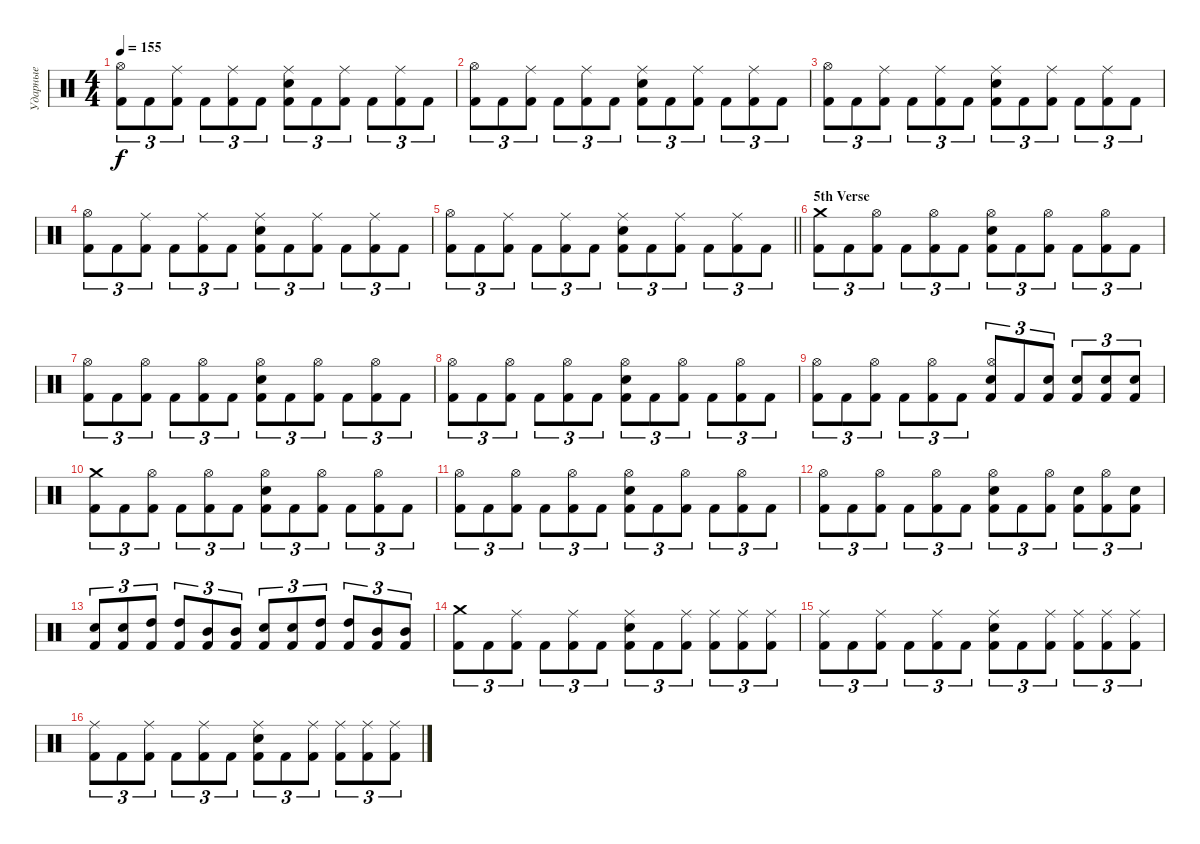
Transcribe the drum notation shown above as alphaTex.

\track ("Ударные" "Ударные") {instrument percussion}
\staff {score}
\articulation defaults
\ts (4 4)
\tempo 155
\clef neutral
\ks c
("Kick (hit) 2" "Hi-Hat (open)").8{tu (3 2) dy f} "Kick (hit) 2".8{tu (3 2)} ("Kick (hit) 2" "Ride (middle)").8{tu (3 2)} "Kick (hit) 2".8{tu (3 2)} ("Kick (hit) 2" "Ride (middle)").8{tu (3 2)} "Kick (hit) 2".8{tu (3 2)} ("Kick (hit) 2" "Electric Snare (hit)" "Ride (middle)").8{tu (3 2)} "Kick (hit) 2".8{tu (3 2)} ("Kick (hit) 2" "Ride (middle)").8{tu (3 2)} "Kick (hit) 2".8{tu (3 2)} ("Kick (hit) 2" "Ride (middle)").8{tu (3 2)} "Kick (hit) 2".8{tu (3 2)} |
("Kick (hit) 2" "Hi-Hat (open)").8{tu (3 2)} "Kick (hit) 2".8{tu (3 2)} ("Kick (hit) 2" "Ride (middle)").8{tu (3 2)} "Kick (hit) 2".8{tu (3 2)} ("Kick (hit) 2" "Ride (middle)").8{tu (3 2)} "Kick (hit) 2".8{tu (3 2)} ("Kick (hit) 2" "Electric Snare (hit)" "Ride (middle)").8{tu (3 2)} "Kick (hit) 2".8{tu (3 2)} ("Kick (hit) 2" "Ride (middle)").8{tu (3 2)} "Kick (hit) 2".8{tu (3 2)} ("Kick (hit) 2" "Ride (middle)").8{tu (3 2)} "Kick (hit) 2".8{tu (3 2)} |
("Kick (hit) 2" "Hi-Hat (open)").8{tu (3 2)} "Kick (hit) 2".8{tu (3 2)} ("Kick (hit) 2" "Ride (middle)").8{tu (3 2)} "Kick (hit) 2".8{tu (3 2)} ("Kick (hit) 2" "Ride (middle)").8{tu (3 2)} "Kick (hit) 2".8{tu (3 2)} ("Kick (hit) 2" "Electric Snare (hit)" "Ride (middle)").8{tu (3 2)} "Kick (hit) 2".8{tu (3 2)} ("Kick (hit) 2" "Ride (middle)").8{tu (3 2)} "Kick (hit) 2".8{tu (3 2)} ("Kick (hit) 2" "Ride (middle)").8{tu (3 2)} "Kick (hit) 2".8{tu (3 2)} |
("Kick (hit) 2" "Hi-Hat (open)").8{tu (3 2)} "Kick (hit) 2".8{tu (3 2)} ("Kick (hit) 2" "Ride (middle)").8{tu (3 2)} "Kick (hit) 2".8{tu (3 2)} ("Kick (hit) 2" "Ride (middle)").8{tu (3 2)} "Kick (hit) 2".8{tu (3 2)} ("Kick (hit) 2" "Electric Snare (hit)" "Ride (middle)").8{tu (3 2)} "Kick (hit) 2".8{tu (3 2)} ("Kick (hit) 2" "Ride (middle)").8{tu (3 2)} "Kick (hit) 2".8{tu (3 2)} ("Kick (hit) 2" "Ride (middle)").8{tu (3 2)} "Kick (hit) 2".8{tu (3 2)} |
\barLineRight lightlight
("Kick (hit) 2" "Hi-Hat (open)").8{tu (3 2)} "Kick (hit) 2".8{tu (3 2)} ("Kick (hit) 2" "Ride (middle)").8{tu (3 2)} "Kick (hit) 2".8{tu (3 2)} ("Kick (hit) 2" "Ride (middle)").8{tu (3 2)} "Kick (hit) 2".8{tu (3 2)} ("Kick (hit) 2" "Electric Snare (hit)" "Ride (middle)").8{tu (3 2)} "Kick (hit) 2".8{tu (3 2)} ("Kick (hit) 2" "Ride (middle)").8{tu (3 2)} "Kick (hit) 2".8{tu (3 2)} ("Kick (hit) 2" "Ride (middle)").8{tu (3 2)} "Kick (hit) 2".8{tu (3 2)} |
\section ("" "5th Verse")
("Kick (hit) 2" "Crash medium (hit)").8{tu (3 2)} "Kick (hit) 2".8{tu (3 2)} ("Kick (hit) 2" "Hi-Hat (open)").8{tu (3 2)} "Kick (hit) 2".8{tu (3 2)} ("Kick (hit) 2" "Hi-Hat (open)").8{tu (3 2)} "Kick (hit) 2".8{tu (3 2)} ("Kick (hit) 2" "Electric Snare (hit)" "Hi-Hat (open)").8{tu (3 2)} "Kick (hit) 2".8{tu (3 2)} ("Kick (hit) 2" "Hi-Hat (open)").8{tu (3 2)} "Kick (hit) 2".8{tu (3 2)} ("Kick (hit) 2" "Hi-Hat (open)").8{tu (3 2)} "Kick (hit) 2".8{tu (3 2)} |
("Kick (hit) 2" "Hi-Hat (open)").8{tu (3 2)} "Kick (hit) 2".8{tu (3 2)} ("Kick (hit) 2" "Hi-Hat (open)").8{tu (3 2)} "Kick (hit) 2".8{tu (3 2)} ("Kick (hit) 2" "Hi-Hat (open)").8{tu (3 2)} "Kick (hit) 2".8{tu (3 2)} ("Kick (hit) 2" "Electric Snare (hit)" "Hi-Hat (open)").8{tu (3 2)} "Kick (hit) 2".8{tu (3 2)} ("Kick (hit) 2" "Hi-Hat (open)").8{tu (3 2)} "Kick (hit) 2".8{tu (3 2)} ("Kick (hit) 2" "Hi-Hat (open)").8{tu (3 2)} "Kick (hit) 2".8{tu (3 2)} |
("Kick (hit) 2" "Hi-Hat (open)").8{tu (3 2)} "Kick (hit) 2".8{tu (3 2)} ("Kick (hit) 2" "Hi-Hat (open)").8{tu (3 2)} "Kick (hit) 2".8{tu (3 2)} ("Kick (hit) 2" "Hi-Hat (open)").8{tu (3 2)} "Kick (hit) 2".8{tu (3 2)} ("Kick (hit) 2" "Electric Snare (hit)" "Hi-Hat (open)").8{tu (3 2)} "Kick (hit) 2".8{tu (3 2)} ("Kick (hit) 2" "Hi-Hat (open)").8{tu (3 2)} "Kick (hit) 2".8{tu (3 2)} ("Kick (hit) 2" "Hi-Hat (open)").8{tu (3 2)} "Kick (hit) 2".8{tu (3 2)} |
("Kick (hit) 2" "Hi-Hat (open)").8{tu (3 2)} "Kick (hit) 2".8{tu (3 2)} ("Kick (hit) 2" "Hi-Hat (open)").8{tu (3 2)} "Kick (hit) 2".8{tu (3 2)} ("Kick (hit) 2" "Hi-Hat (open)").8{tu (3 2)} "Kick (hit) 2".8{tu (3 2)} ("Kick (hit) 2" "Electric Snare (hit)" "Hi-Hat (open)").8{tu (3 2)} "Kick (hit) 2".8{tu (3 2)} ("Kick (hit) 2" "Electric Snare (hit)").8{tu (3 2)} ("Kick (hit) 2" "Electric Snare (hit)").8{tu (3 2)} ("Kick (hit) 2" "Electric Snare (hit)").8{tu (3 2)} ("Kick (hit) 2" "Electric Snare (hit)").8{tu (3 2)} |
("Kick (hit) 2" "Crash medium (hit)").8{tu (3 2)} "Kick (hit) 2".8{tu (3 2)} ("Kick (hit) 2" "Hi-Hat (open)").8{tu (3 2)} "Kick (hit) 2".8{tu (3 2)} ("Kick (hit) 2" "Hi-Hat (open)").8{tu (3 2)} "Kick (hit) 2".8{tu (3 2)} ("Kick (hit) 2" "Electric Snare (hit)" "Hi-Hat (open)").8{tu (3 2)} "Kick (hit) 2".8{tu (3 2)} ("Kick (hit) 2" "Hi-Hat (open)").8{tu (3 2)} "Kick (hit) 2".8{tu (3 2)} ("Kick (hit) 2" "Hi-Hat (open)").8{tu (3 2)} "Kick (hit) 2".8{tu (3 2)} |
("Kick (hit) 2" "Hi-Hat (open)").8{tu (3 2)} "Kick (hit) 2".8{tu (3 2)} ("Kick (hit) 2" "Hi-Hat (open)").8{tu (3 2)} "Kick (hit) 2".8{tu (3 2)} ("Kick (hit) 2" "Hi-Hat (open)").8{tu (3 2)} "Kick (hit) 2".8{tu (3 2)} ("Kick (hit) 2" "Electric Snare (hit)" "Hi-Hat (open)").8{tu (3 2)} "Kick (hit) 2".8{tu (3 2)} ("Kick (hit) 2" "Hi-Hat (open)").8{tu (3 2)} "Kick (hit) 2".8{tu (3 2)} ("Kick (hit) 2" "Hi-Hat (open)").8{tu (3 2)} "Kick (hit) 2".8{tu (3 2)} |
("Kick (hit) 2" "Hi-Hat (open)").8{tu (3 2)} "Kick (hit) 2".8{tu (3 2)} ("Kick (hit) 2" "Hi-Hat (open)").8{tu (3 2)} "Kick (hit) 2".8{tu (3 2)} ("Kick (hit) 2" "Hi-Hat (open)").8{tu (3 2)} "Kick (hit) 2".8{tu (3 2)} ("Kick (hit) 2" "Electric Snare (hit)" "Hi-Hat (open)").8{tu (3 2)} "Kick (hit) 2".8{tu (3 2)} ("Kick (hit) 2" "Hi-Hat (open)").8{tu (3 2)} ("Kick (hit) 2" "Electric Snare (hit)").8{tu (3 2)} ("Kick (hit) 2" "Hi-Hat (open)").8{tu (3 2)} ("Kick (hit) 2" "Electric Snare (hit)").8{tu (3 2)} |
("Kick (hit) 2" "Electric Snare (hit)").8{tu (3 2)} ("Kick (hit) 2" "Electric Snare (hit)").8{tu (3 2)} ("Kick (hit) 2" "High Tom (hit)").8{tu (3 2)} ("Kick (hit) 2" "High Tom (hit)").8{tu (3 2)} ("Kick (hit) 2" "Mid Tom (hit)").8{tu (3 2)} ("Kick (hit) 2" "Mid Tom (hit)").8{tu (3 2)} ("Kick (hit) 2" "Electric Snare (hit)").8{tu (3 2)} ("Kick (hit) 2" "Electric Snare (hit)").8{tu (3 2)} ("Kick (hit) 2" "High Tom (hit)").8{tu (3 2)} ("Kick (hit) 2" "High Tom (hit)").8{tu (3 2)} ("Kick (hit) 2" "Mid Tom (hit)").8{tu (3 2)} ("Kick (hit) 2" "Mid Tom (hit)").8{tu (3 2)} |
("Kick (hit) 2" "Crash medium (hit)").8{tu (3 2)} "Kick (hit) 2".8{tu (3 2)} ("Kick (hit) 2" "Ride (middle)").8{tu (3 2)} "Kick (hit) 2".8{tu (3 2)} ("Kick (hit) 2" "Ride (middle)").8{tu (3 2)} "Kick (hit) 2".8{tu (3 2)} ("Kick (hit) 2" "Electric Snare (hit)" "Ride (middle)").8{tu (3 2)} "Kick (hit) 2".8{tu (3 2)} ("Kick (hit) 2" "Ride (middle)").8{tu (3 2)} ("Kick (hit) 2" "Ride (middle)").8{tu (3 2)} ("Kick (hit) 2" "Ride (middle)").8{tu (3 2)} ("Kick (hit) 2" "Ride (middle)").8{tu (3 2)} |
("Kick (hit) 2" "Ride (middle)").8{tu (3 2)} "Kick (hit) 2".8{tu (3 2)} ("Kick (hit) 2" "Ride (middle)").8{tu (3 2)} "Kick (hit) 2".8{tu (3 2)} ("Kick (hit) 2" "Ride (middle)").8{tu (3 2)} "Kick (hit) 2".8{tu (3 2)} ("Kick (hit) 2" "Electric Snare (hit)" "Ride (middle)").8{tu (3 2)} "Kick (hit) 2".8{tu (3 2)} ("Kick (hit) 2" "Ride (middle)").8{tu (3 2)} ("Kick (hit) 2" "Ride (middle)").8{tu (3 2)} ("Kick (hit) 2" "Ride (middle)").8{tu (3 2)} ("Kick (hit) 2" "Ride (middle)").8{tu (3 2)} |
("Kick (hit) 2" "Ride (middle)").8{tu (3 2)} "Kick (hit) 2".8{tu (3 2)} ("Kick (hit) 2" "Ride (middle)").8{tu (3 2)} "Kick (hit) 2".8{tu (3 2)} ("Kick (hit) 2" "Ride (middle)").8{tu (3 2)} "Kick (hit) 2".8{tu (3 2)} ("Kick (hit) 2" "Electric Snare (hit)" "Ride (middle)").8{tu (3 2)} "Kick (hit) 2".8{tu (3 2)} ("Kick (hit) 2" "Ride (middle)").8{tu (3 2)} ("Kick (hit) 2" "Ride (middle)").8{tu (3 2)} ("Kick (hit) 2" "Ride (middle)").8{tu (3 2)} ("Kick (hit) 2" "Ride (middle)").8{tu (3 2)}
